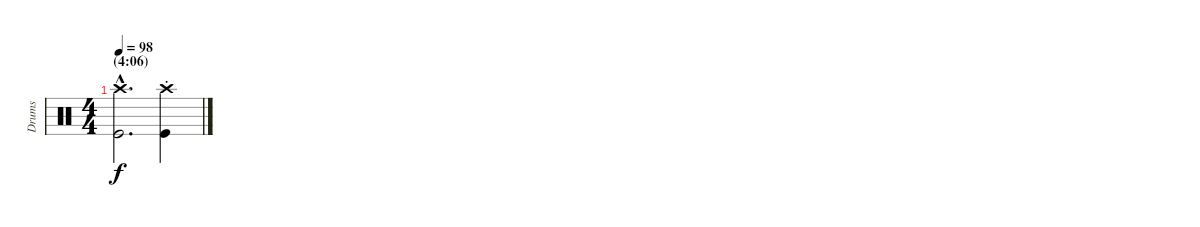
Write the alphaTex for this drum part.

\track ("Drums" "Drums") {instrument percussion}
\staff {score}
\articulation defaults
\ts (4 4)
\section ("" "(4:06)")
\tempo 98
\clef neutral
\ks c
("Crash high (hit)"{hac} "Kick (hit)"{hac}).2{d dy f} ("Crash high (hit)"{st} "Kick (hit)").4
